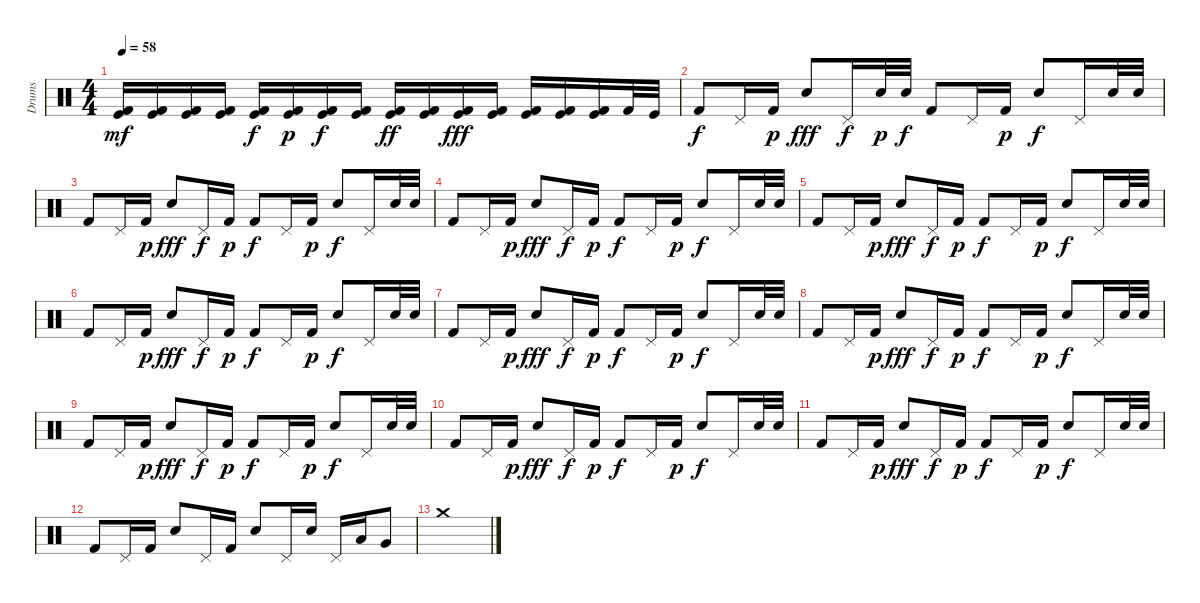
\track ("Drums " "Drums ") {instrument percussion}
\staff {score}
\articulation defaults
\ts (4 4)
\tempo 58
\clef neutral
\ks c
("Kick (hit)" "Kick (hit) 2").16{dy mf} ("Kick (hit)" "Kick (hit) 2").16 ("Kick (hit)" "Kick (hit) 2").16 ("Kick (hit)" "Kick (hit) 2").16 ("Kick (hit)" "Kick (hit) 2").16{dy f} ("Kick (hit)" "Kick (hit) 2").16{dy p} ("Kick (hit)" "Kick (hit) 2").16{dy f} ("Kick (hit)" "Kick (hit) 2").16 ("Kick (hit)" "Kick (hit) 2").16{dy ff} ("Kick (hit)" "Kick (hit) 2").16 ("Kick (hit)" "Kick (hit) 2").16{dy fff} ("Kick (hit)" "Kick (hit) 2").16 ("Kick (hit)" "Kick (hit) 2").16 ("Kick (hit)" "Kick (hit) 2").16 ("Kick (hit)" "Kick (hit) 2").16 "Kick (hit) 2".32 "Kick (hit)".32 |
"Kick (hit) 2".8{dy f} "Pedal Hi-Hat (hit)".16 "Kick (hit) 2".16{dy p} "Electric Snare (hit)".8{dy fff} "Pedal Hi-Hat (hit)".16{dy f} "Electric Snare (hit)".32{dy p} "Electric Snare (hit)".32{dy f} "Kick (hit) 2".8 "Pedal Hi-Hat (hit)".16 "Kick (hit) 2".16{dy p} "Electric Snare (hit)".8{dy f} "Pedal Hi-Hat (hit)".16 "Electric Snare (hit)".32 "Electric Snare (hit)".32 |
"Kick (hit) 2".8 "Pedal Hi-Hat (hit)".16 "Kick (hit) 2".16{dy p} "Electric Snare (hit)".8{dy fff} "Pedal Hi-Hat (hit)".16{dy f} "Kick (hit) 2".16{dy p} "Kick (hit) 2".8{dy f} "Pedal Hi-Hat (hit)".16 "Kick (hit) 2".16{dy p} "Electric Snare (hit)".8{dy f} "Pedal Hi-Hat (hit)".16 "Electric Snare (hit)".32 "Electric Snare (hit)".32 |
"Kick (hit) 2".8 "Pedal Hi-Hat (hit)".16 "Kick (hit) 2".16{dy p} "Electric Snare (hit)".8{dy fff} "Pedal Hi-Hat (hit)".16{dy f} "Kick (hit) 2".16{dy p} "Kick (hit) 2".8{dy f} "Pedal Hi-Hat (hit)".16 "Kick (hit) 2".16{dy p} "Electric Snare (hit)".8{dy f} "Pedal Hi-Hat (hit)".16 "Electric Snare (hit)".32 "Electric Snare (hit)".32 |
"Kick (hit) 2".8 "Pedal Hi-Hat (hit)".16 "Kick (hit) 2".16{dy p} "Electric Snare (hit)".8{dy fff} "Pedal Hi-Hat (hit)".16{dy f} "Kick (hit) 2".16{dy p} "Kick (hit) 2".8{dy f} "Pedal Hi-Hat (hit)".16 "Kick (hit) 2".16{dy p} "Electric Snare (hit)".8{dy f} "Pedal Hi-Hat (hit)".16 "Electric Snare (hit)".32 "Electric Snare (hit)".32 |
"Kick (hit) 2".8 "Pedal Hi-Hat (hit)".16 "Kick (hit) 2".16{dy p} "Electric Snare (hit)".8{dy fff} "Pedal Hi-Hat (hit)".16{dy f} "Kick (hit) 2".16{dy p} "Kick (hit) 2".8{dy f} "Pedal Hi-Hat (hit)".16 "Kick (hit) 2".16{dy p} "Electric Snare (hit)".8{dy f} "Pedal Hi-Hat (hit)".16 "Electric Snare (hit)".32 "Electric Snare (hit)".32 |
"Kick (hit) 2".8 "Pedal Hi-Hat (hit)".16 "Kick (hit) 2".16{dy p} "Electric Snare (hit)".8{dy fff} "Pedal Hi-Hat (hit)".16{dy f} "Kick (hit) 2".16{dy p} "Kick (hit) 2".8{dy f} "Pedal Hi-Hat (hit)".16 "Kick (hit) 2".16{dy p} "Electric Snare (hit)".8{dy f} "Pedal Hi-Hat (hit)".16 "Electric Snare (hit)".32 "Electric Snare (hit)".32 |
"Kick (hit) 2".8 "Pedal Hi-Hat (hit)".16 "Kick (hit) 2".16{dy p} "Electric Snare (hit)".8{dy fff} "Pedal Hi-Hat (hit)".16{dy f} "Kick (hit) 2".16{dy p} "Kick (hit) 2".8{dy f} "Pedal Hi-Hat (hit)".16 "Kick (hit) 2".16{dy p} "Electric Snare (hit)".8{dy f} "Pedal Hi-Hat (hit)".16 "Electric Snare (hit)".32 "Electric Snare (hit)".32 |
"Kick (hit) 2".8 "Pedal Hi-Hat (hit)".16 "Kick (hit) 2".16{dy p} "Electric Snare (hit)".8{dy fff} "Pedal Hi-Hat (hit)".16{dy f} "Kick (hit) 2".16{dy p} "Kick (hit) 2".8{dy f} "Pedal Hi-Hat (hit)".16 "Kick (hit) 2".16{dy p} "Electric Snare (hit)".8{dy f} "Pedal Hi-Hat (hit)".16 "Electric Snare (hit)".32 "Electric Snare (hit)".32 |
"Kick (hit) 2".8 "Pedal Hi-Hat (hit)".16 "Kick (hit) 2".16{dy p} "Electric Snare (hit)".8{dy fff} "Pedal Hi-Hat (hit)".16{dy f} "Kick (hit) 2".16{dy p} "Kick (hit) 2".8{dy f} "Pedal Hi-Hat (hit)".16 "Kick (hit) 2".16{dy p} "Electric Snare (hit)".8{dy f} "Pedal Hi-Hat (hit)".16 "Electric Snare (hit)".32 "Electric Snare (hit)".32 |
"Kick (hit) 2".8 "Pedal Hi-Hat (hit)".16 "Kick (hit) 2".16{dy p} "Electric Snare (hit)".8{dy fff} "Pedal Hi-Hat (hit)".16{dy f} "Kick (hit) 2".16{dy p} "Kick (hit) 2".8{dy f} "Pedal Hi-Hat (hit)".16 "Kick (hit) 2".16{dy p} "Electric Snare (hit)".8{dy f} "Pedal Hi-Hat (hit)".16 "Electric Snare (hit)".32 "Electric Snare (hit)".32 |
"Kick (hit) 2".8 "Pedal Hi-Hat (hit)".16 "Kick (hit) 2".16 "Electric Snare (hit)".8 "Pedal Hi-Hat (hit)".16 "Kick (hit) 2".16 "Electric Snare (hit)".8 "Pedal Hi-Hat (hit)".16 "Electric Snare (hit)".16 "Pedal Hi-Hat (hit)".16 "Low Tom (hit)".16 "Very Low Tom (hit)".8 |
"Crash medium (hit)".1
